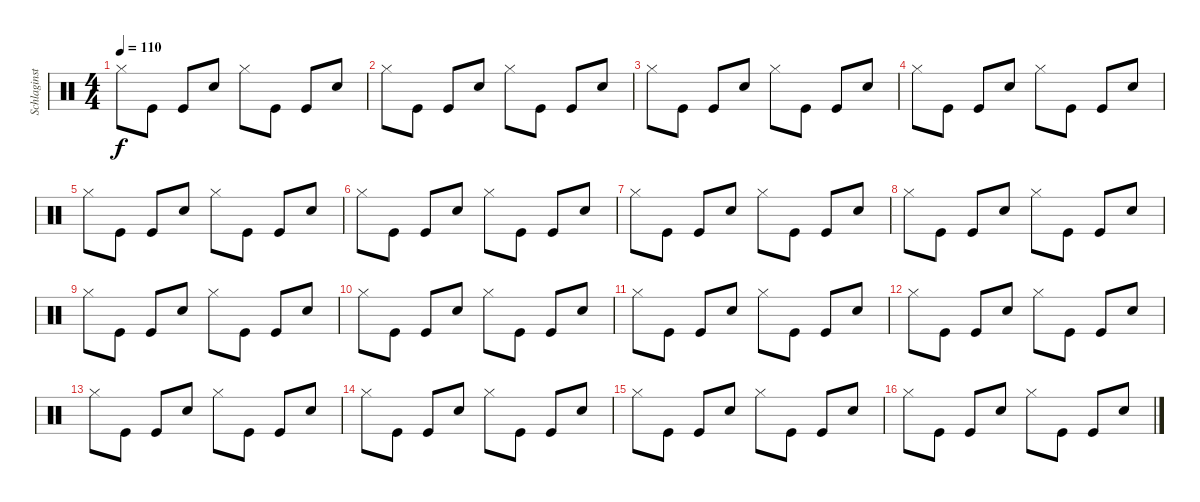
\track ("Schlaginstrumente - Auswahl" "Schlaginst") {instrument percussion}
\staff {score}
\articulation defaults
\ts (4 4)
\tempo 110
\clef neutral
\ks c "Hi-Hat (closed)".8{dy f} "Kick (hit)".8 "Kick (hit)".8 "Snare (hit) 2".8 "Hi-Hat (closed)".8 "Kick (hit)".8 "Kick (hit)".8 "Snare (hit) 2".8
|
"Hi-Hat (closed)".8 "Kick (hit)".8 "Kick (hit)".8 "Snare (hit) 2".8 "Hi-Hat (closed)".8 "Kick (hit)".8 "Kick (hit)".8 "Snare (hit) 2".8 |
"Hi-Hat (closed)".8 "Kick (hit)".8 "Kick (hit)".8 "Snare (hit) 2".8 "Hi-Hat (closed)".8 "Kick (hit)".8 "Kick (hit)".8 "Snare (hit) 2".8 |
"Hi-Hat (closed)".8 "Kick (hit)".8 "Kick (hit)".8 "Snare (hit) 2".8 "Hi-Hat (closed)".8 "Kick (hit)".8 "Kick (hit)".8 "Snare (hit) 2".8 |
"Hi-Hat (closed)".8 "Kick (hit)".8 "Kick (hit)".8 "Snare (hit) 2".8 "Hi-Hat (closed)".8 "Kick (hit)".8 "Kick (hit)".8 "Snare (hit) 2".8 |
"Hi-Hat (closed)".8 "Kick (hit)".8 "Kick (hit)".8 "Snare (hit) 2".8 "Hi-Hat (closed)".8 "Kick (hit)".8 "Kick (hit)".8 "Snare (hit) 2".8 |
"Hi-Hat (closed)".8 "Kick (hit)".8 "Kick (hit)".8 "Snare (hit) 2".8 "Hi-Hat (closed)".8 "Kick (hit)".8 "Kick (hit)".8 "Snare (hit) 2".8 |
"Hi-Hat (closed)".8 "Kick (hit)".8 "Kick (hit)".8 "Snare (hit) 2".8 "Hi-Hat (closed)".8 "Kick (hit)".8 "Kick (hit)".8 "Snare (hit) 2".8 |
"Hi-Hat (closed)".8 "Kick (hit)".8 "Kick (hit)".8 "Snare (hit) 2".8 "Hi-Hat (closed)".8 "Kick (hit)".8 "Kick (hit)".8 "Snare (hit) 2".8 |
"Hi-Hat (closed)".8 "Kick (hit)".8 "Kick (hit)".8 "Snare (hit) 2".8 "Hi-Hat (closed)".8 "Kick (hit)".8 "Kick (hit)".8 "Snare (hit) 2".8 |
"Hi-Hat (closed)".8 "Kick (hit)".8 "Kick (hit)".8 "Snare (hit) 2".8 "Hi-Hat (closed)".8 "Kick (hit)".8 "Kick (hit)".8 "Snare (hit) 2".8 |
"Hi-Hat (closed)".8 "Kick (hit)".8 "Kick (hit)".8 "Snare (hit) 2".8 "Hi-Hat (closed)".8 "Kick (hit)".8 "Kick (hit)".8 "Snare (hit) 2".8 |
"Hi-Hat (closed)".8 "Kick (hit)".8 "Kick (hit)".8 "Snare (hit) 2".8 "Hi-Hat (closed)".8 "Kick (hit)".8 "Kick (hit)".8 "Snare (hit) 2".8 |
"Hi-Hat (closed)".8 "Kick (hit)".8 "Kick (hit)".8 "Snare (hit) 2".8 "Hi-Hat (closed)".8 "Kick (hit)".8 "Kick (hit)".8 "Snare (hit) 2".8 |
"Hi-Hat (closed)".8 "Kick (hit)".8 "Kick (hit)".8 "Snare (hit) 2".8 "Hi-Hat (closed)".8 "Kick (hit)".8 "Kick (hit)".8 "Snare (hit) 2".8 |
"Hi-Hat (closed)".8 "Kick (hit)".8 "Kick (hit)".8 "Snare (hit) 2".8 "Hi-Hat (closed)".8 "Kick (hit)".8 "Kick (hit)".8 "Snare (hit) 2".8
